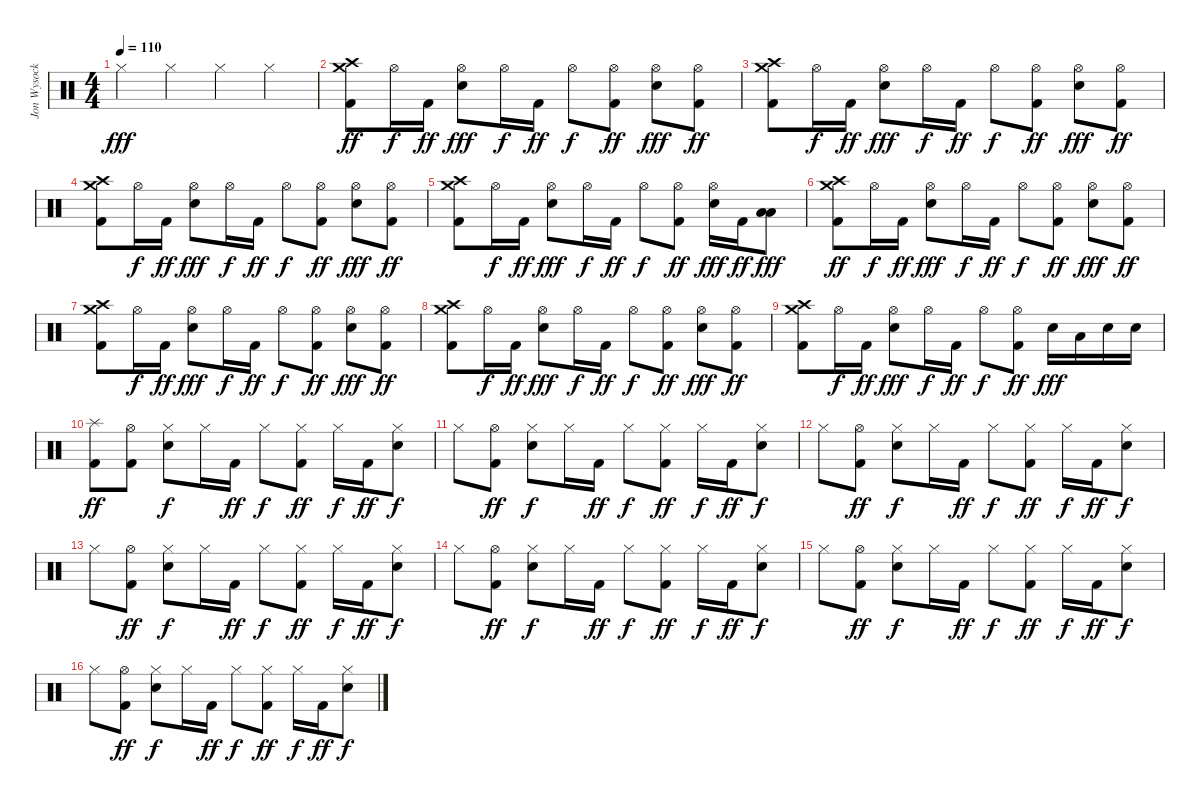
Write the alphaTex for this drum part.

\track ("Jon Wysocki" "Jon Wysock") {instrument percussion}
\staff {score}
\articulation defaults
\ts (4 4)
\tempo 110
\clef neutral
\ks c "Hi-Hat (closed)".4{dy fff} "Hi-Hat (closed)".4 "Hi-Hat (closed)".4 "Hi-Hat (closed)".4
|
("Crash medium (hit)" "Crash high (hit)" "Kick (hit) 2").8{dy ff} "Hi-Hat (open)".16{dy f} "Kick (hit) 2".16{dy ff} ("Hi-Hat (open)" "Electric Snare (hit)").8{dy fff} "Hi-Hat (open)".16{dy f} "Kick (hit) 2".16{dy ff} "Hi-Hat (open)".8{dy f} ("Hi-Hat (open)" "Kick (hit) 2").8{dy ff} ("Hi-Hat (open)" "Electric Snare (hit)").8{dy fff} ("Hi-Hat (open)" "Kick (hit) 2").8{dy ff} |
("Crash medium (hit)" "Crash high (hit)" "Kick (hit) 2").8 "Hi-Hat (open)".16{dy f} "Kick (hit) 2".16{dy ff} ("Hi-Hat (open)" "Electric Snare (hit)").8{dy fff} "Hi-Hat (open)".16{dy f} "Kick (hit) 2".16{dy ff} "Hi-Hat (open)".8{dy f} ("Hi-Hat (open)" "Kick (hit) 2").8{dy ff} ("Hi-Hat (open)" "Electric Snare (hit)").8{dy fff} ("Hi-Hat (open)" "Kick (hit) 2").8{dy ff} |
("Crash medium (hit)" "Crash high (hit)" "Kick (hit) 2").8 "Hi-Hat (open)".16{dy f} "Kick (hit) 2".16{dy ff} ("Hi-Hat (open)" "Electric Snare (hit)").8{dy fff} "Hi-Hat (open)".16{dy f} "Kick (hit) 2".16{dy ff} "Hi-Hat (open)".8{dy f} ("Hi-Hat (open)" "Kick (hit) 2").8{dy ff} ("Hi-Hat (open)" "Electric Snare (hit)").8{dy fff} ("Hi-Hat (open)" "Kick (hit) 2").8{dy ff} |
("Crash medium (hit)" "Crash high (hit)" "Kick (hit) 2").8 "Hi-Hat (open)".16{dy f} "Kick (hit) 2".16{dy ff} ("Hi-Hat (open)" "Electric Snare (hit)").8{dy fff} "Hi-Hat (open)".16{dy f} "Kick (hit) 2".16{dy ff} "Hi-Hat (open)".8{dy f} ("Hi-Hat (open)" "Kick (hit) 2").8{dy ff} ("Hi-Hat (open)" "Electric Snare (hit)").16{dy fff} "Kick (hit) 2".16{dy ff} ("Low Tom (hit)" "Low Floor Tom (hit)").8{dy fff} |
("Crash medium (hit)" "Crash high (hit)" "Kick (hit) 2").8{dy ff} "Hi-Hat (open)".16{dy f} "Kick (hit) 2".16{dy ff} ("Hi-Hat (open)" "Electric Snare (hit)").8{dy fff} "Hi-Hat (open)".16{dy f} "Kick (hit) 2".16{dy ff} "Hi-Hat (open)".8{dy f} ("Hi-Hat (open)" "Kick (hit) 2").8{dy ff} ("Hi-Hat (open)" "Electric Snare (hit)").8{dy fff} ("Hi-Hat (open)" "Kick (hit) 2").8{dy ff} |
("Crash medium (hit)" "Crash high (hit)" "Kick (hit) 2").8 "Hi-Hat (open)".16{dy f} "Kick (hit) 2".16{dy ff} ("Hi-Hat (open)" "Electric Snare (hit)").8{dy fff} "Hi-Hat (open)".16{dy f} "Kick (hit) 2".16{dy ff} "Hi-Hat (open)".8{dy f} ("Hi-Hat (open)" "Kick (hit) 2").8{dy ff} ("Hi-Hat (open)" "Electric Snare (hit)").8{dy fff} ("Hi-Hat (open)" "Kick (hit) 2").8{dy ff} |
("Crash medium (hit)" "Crash high (hit)" "Kick (hit) 2").8 "Hi-Hat (open)".16{dy f} "Kick (hit) 2".16{dy ff} ("Hi-Hat (open)" "Electric Snare (hit)").8{dy fff} "Hi-Hat (open)".16{dy f} "Kick (hit) 2".16{dy ff} "Hi-Hat (open)".8{dy f} ("Hi-Hat (open)" "Kick (hit) 2").8{dy ff} ("Hi-Hat (open)" "Electric Snare (hit)").8{dy fff} ("Hi-Hat (open)" "Kick (hit) 2").8{dy ff} |
("Crash medium (hit)" "Crash high (hit)" "Kick (hit) 2").8 "Hi-Hat (open)".16{dy f} "Kick (hit) 2".16{dy ff} ("Hi-Hat (open)" "Electric Snare (hit)").8{dy fff} "Hi-Hat (open)".16{dy f} "Kick (hit) 2".16{dy ff} "Hi-Hat (open)".8{dy f} ("Hi-Hat (open)" "Kick (hit) 2").8{dy ff} "Electric Snare (hit)".16{dy fff} "Low Tom (hit)".16 "Electric Snare (hit)".16 "Electric Snare (hit)".16 |
("Splash (hit)" "Kick (hit) 2").8{dy ff} ("Hi-Hat (open)" "Kick (hit) 2").8 ("Hi-Hat (closed)" "Electric Snare (hit)").8{dy f} "Hi-Hat (closed)".16 "Kick (hit) 2".16{dy ff} "Hi-Hat (closed)".8{dy f} ("Hi-Hat (closed)" "Kick (hit) 2").8{dy ff} "Hi-Hat (closed)".16{dy f} "Kick (hit) 2".16{dy ff} ("Hi-Hat (closed)" "Electric Snare (hit)").8{dy f} |
"Hi-Hat (closed)".8 ("Hi-Hat (open)" "Kick (hit) 2").8{dy ff} ("Hi-Hat (closed)" "Electric Snare (hit)").8{dy f} "Hi-Hat (closed)".16 "Kick (hit) 2".16{dy ff} "Hi-Hat (closed)".8{dy f} ("Hi-Hat (closed)" "Kick (hit) 2").8{dy ff} "Hi-Hat (closed)".16{dy f} "Kick (hit) 2".16{dy ff} ("Hi-Hat (closed)" "Electric Snare (hit)").8{dy f} |
"Hi-Hat (closed)".8 ("Hi-Hat (open)" "Kick (hit) 2").8{dy ff} ("Hi-Hat (closed)" "Electric Snare (hit)").8{dy f} "Hi-Hat (closed)".16 "Kick (hit) 2".16{dy ff} "Hi-Hat (closed)".8{dy f} ("Hi-Hat (closed)" "Kick (hit) 2").8{dy ff} "Hi-Hat (closed)".16{dy f} "Kick (hit) 2".16{dy ff} ("Hi-Hat (closed)" "Electric Snare (hit)").8{dy f} |
"Hi-Hat (closed)".8 ("Hi-Hat (open)" "Kick (hit) 2").8{dy ff} ("Hi-Hat (closed)" "Electric Snare (hit)").8{dy f} "Hi-Hat (closed)".16 "Kick (hit) 2".16{dy ff} "Hi-Hat (closed)".8{dy f} ("Hi-Hat (closed)" "Kick (hit) 2").8{dy ff} "Hi-Hat (closed)".16{dy f} "Kick (hit) 2".16{dy ff} ("Hi-Hat (closed)" "Electric Snare (hit)").8{dy f} |
"Hi-Hat (closed)".8 ("Hi-Hat (open)" "Kick (hit) 2").8{dy ff} ("Hi-Hat (closed)" "Electric Snare (hit)").8{dy f} "Hi-Hat (closed)".16 "Kick (hit) 2".16{dy ff} "Hi-Hat (closed)".8{dy f} ("Hi-Hat (closed)" "Kick (hit) 2").8{dy ff} "Hi-Hat (closed)".16{dy f} "Kick (hit) 2".16{dy ff} ("Hi-Hat (closed)" "Electric Snare (hit)").8{dy f} |
"Hi-Hat (closed)".8 ("Hi-Hat (open)" "Kick (hit) 2").8{dy ff} ("Hi-Hat (closed)" "Electric Snare (hit)").8{dy f} "Hi-Hat (closed)".16 "Kick (hit) 2".16{dy ff} "Hi-Hat (closed)".8{dy f} ("Hi-Hat (closed)" "Kick (hit) 2").8{dy ff} "Hi-Hat (closed)".16{dy f} "Kick (hit) 2".16{dy ff} ("Hi-Hat (closed)" "Electric Snare (hit)").8{dy f} |
"Hi-Hat (closed)".8 ("Hi-Hat (open)" "Kick (hit) 2").8{dy ff} ("Hi-Hat (closed)" "Electric Snare (hit)").8{dy f} "Hi-Hat (closed)".16 "Kick (hit) 2".16{dy ff} "Hi-Hat (closed)".8{dy f} ("Hi-Hat (closed)" "Kick (hit) 2").8{dy ff} "Hi-Hat (closed)".16{dy f} "Kick (hit) 2".16{dy ff} ("Hi-Hat (closed)" "Electric Snare (hit)").8{dy f}
